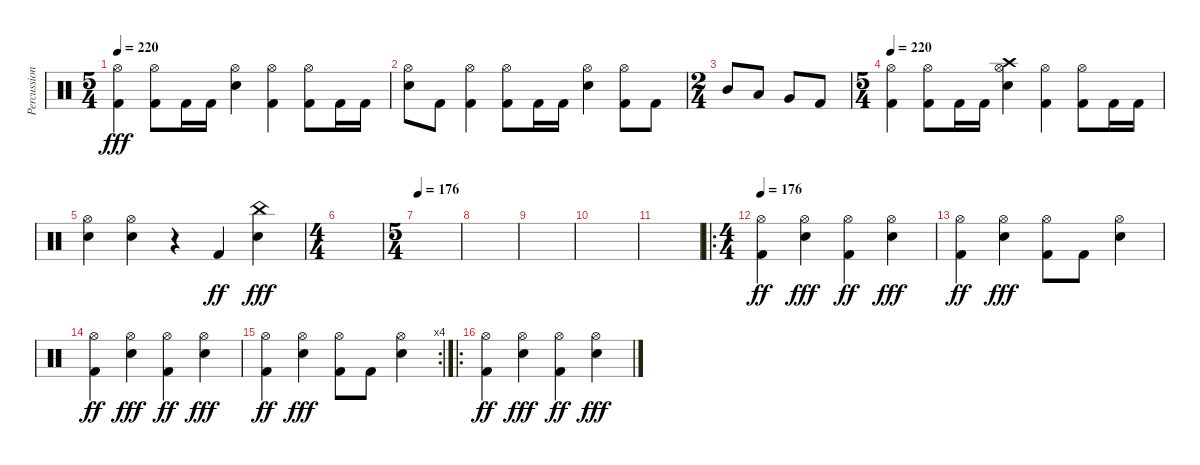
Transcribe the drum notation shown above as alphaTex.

\track ("Percussion" "Percussion") {instrument percussion}
\staff {score}
\articulation defaults
\ts (5 4)
\tempo 220
\clef neutral
\ks c
("Hi-Hat (open)" "Kick (hit) 2").4{dy fff} ("Hi-Hat (open)" "Kick (hit) 2").8 "Kick (hit) 2".16 "Kick (hit) 2".16 ("Hi-Hat (open)" "Snare (hit) 2").4 ("Hi-Hat (open)" "Kick (hit) 2").4 ("Hi-Hat (open)" "Kick (hit) 2").8 "Kick (hit) 2".16 "Kick (hit) 2".16 |
("Hi-Hat (open)" "Snare (hit) 2").8 "Kick (hit) 2".8 ("Hi-Hat (open)" "Kick (hit) 2").4 ("Hi-Hat (open)" "Kick (hit) 2").8 "Kick (hit) 2".16 "Kick (hit) 2".16 ("Hi-Hat (open)" "Snare (hit) 2").4 ("Hi-Hat (open)" "Kick (hit) 2").8 "Kick (hit) 2".8 |
\ts (2 4)
"Mid Tom (hit)".8 "Low Tom (hit)".8 "Very Low Tom (hit)".8 "Kick (hit) 2".8 |
\ts (5 4)
\tempo 220
("Hi-Hat (open)" "Kick (hit) 2").4 ("Hi-Hat (open)" "Kick (hit) 2").8 "Kick (hit) 2".16 "Kick (hit) 2".16 ("Hi-Hat (open)" "Crash high (hit)" "Snare (hit) 2").4 ("Hi-Hat (open)" "Kick (hit) 2").4 ("Hi-Hat (open)" "Kick (hit) 2").8 "Kick (hit) 2".16 "Kick (hit) 2".16 |
("Hi-Hat (open)" "Snare (hit) 2").4 ("Hi-Hat (open)" "Snare (hit) 2").4 r.4 "Kick (hit) 2".4{dy ff} ("China (hit)" "Snare (hit) 2").4{dy fff} |
\ts (4 4)
|
\ts (5 4)
\tempo 176
|
|
|
|
|
\ro
\ts (4 4)
\tempo 176
("Hi-Hat (open)" "Kick (hit) 2").4{dy ff} ("Hi-Hat (open)" "Snare (hit) 2").4{dy fff} ("Hi-Hat (open)" "Kick (hit) 2").4{dy ff} ("Hi-Hat (open)" "Snare (hit) 2").4{dy fff} |
("Hi-Hat (open)" "Kick (hit) 2").4{dy ff} ("Hi-Hat (open)" "Snare (hit) 2").4{dy fff} ("Hi-Hat (open)" "Kick (hit) 2").8 "Kick (hit) 2".8 ("Hi-Hat (open)" "Snare (hit) 2").4 |
("Hi-Hat (open)" "Kick (hit) 2").4{dy ff} ("Hi-Hat (open)" "Snare (hit) 2").4{dy fff} ("Hi-Hat (open)" "Kick (hit) 2").4{dy ff} ("Hi-Hat (open)" "Snare (hit) 2").4{dy fff} |
\rc 4
("Hi-Hat (open)" "Kick (hit) 2").4{dy ff} ("Hi-Hat (open)" "Snare (hit) 2").4{dy fff} ("Hi-Hat (open)" "Kick (hit) 2").8 "Kick (hit) 2".8 ("Hi-Hat (open)" "Snare (hit) 2").4 |
\ro
("Hi-Hat (open)" "Kick (hit) 2").4{dy ff} ("Hi-Hat (open)" "Snare (hit) 2").4{dy fff} ("Hi-Hat (open)" "Kick (hit) 2").4{dy ff} ("Hi-Hat (open)" "Snare (hit) 2").4{dy fff}
